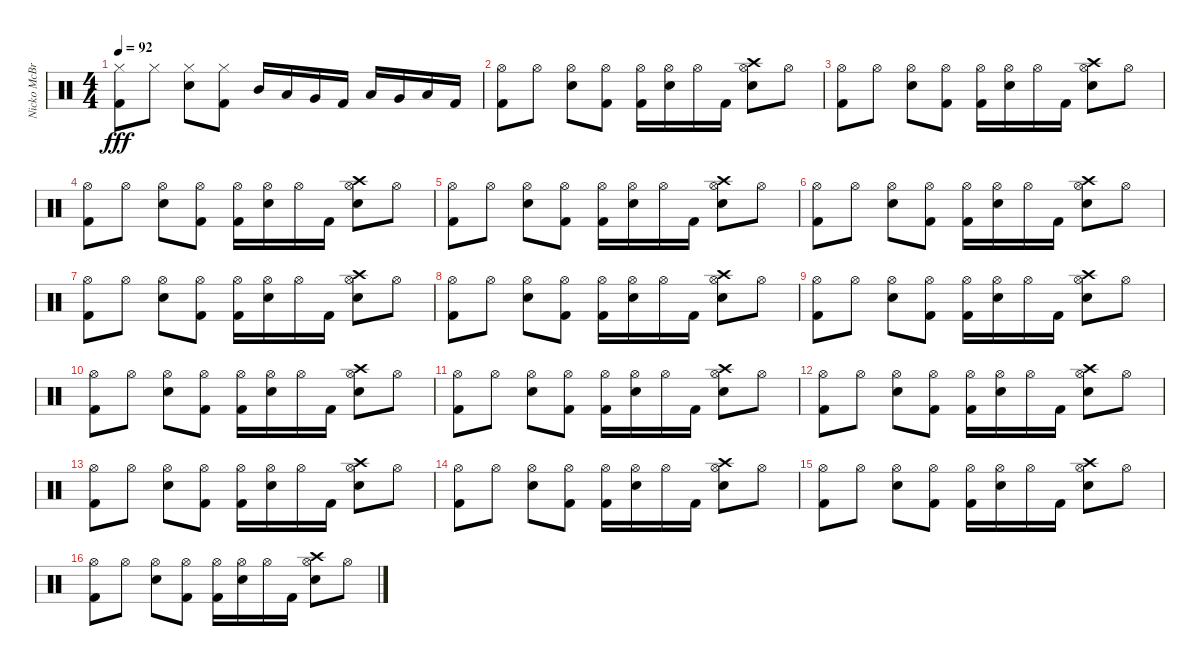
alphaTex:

\track ("Nicko McBrain" "Nicko McBr") {instrument percussion}
\staff {score}
\articulation defaults
\ts (4 4)
\tempo 92
\clef neutral
\ks c
("Hi-Hat (closed)" "Kick (hit) 2").8{dy fff} "Hi-Hat (closed)".8 ("Hi-Hat (closed)" "Snare (hit) 2").8 ("Hi-Hat (closed)" "Kick (hit) 2").8 "Mid Tom (hit)".16 "Low Tom (hit)".16 "Very Low Tom (hit)".16 "Kick (hit) 2".16 "Low Tom (hit)".16 "Very Low Tom (hit)".16 "Low Floor Tom (hit)".16 "Kick (hit) 2".16 |
("Hi-Hat (open)" "Kick (hit) 2").8 "Hi-Hat (open)".8 ("Hi-Hat (open)" "Snare (hit) 2").8 ("Hi-Hat (open)" "Kick (hit) 2").8 ("Hi-Hat (open)" "Kick (hit) 2").16 ("Hi-Hat (open)" "Snare (hit) 2").16 "Hi-Hat (open)".16 "Kick (hit) 2".16 ("Hi-Hat (open)" "Snare (hit) 2" "Crash high (hit)").8 "Hi-Hat (open)".8 |
("Hi-Hat (open)" "Kick (hit) 2").8 "Hi-Hat (open)".8 ("Hi-Hat (open)" "Snare (hit) 2").8 ("Hi-Hat (open)" "Kick (hit) 2").8 ("Hi-Hat (open)" "Kick (hit) 2").16 ("Hi-Hat (open)" "Snare (hit) 2").16 "Hi-Hat (open)".16 "Kick (hit) 2".16 ("Hi-Hat (open)" "Snare (hit) 2" "Crash high (hit)").8 "Hi-Hat (open)".8 |
("Hi-Hat (open)" "Kick (hit) 2").8 "Hi-Hat (open)".8 ("Hi-Hat (open)" "Snare (hit) 2").8 ("Hi-Hat (open)" "Kick (hit) 2").8 ("Hi-Hat (open)" "Kick (hit) 2").16 ("Hi-Hat (open)" "Snare (hit) 2").16 "Hi-Hat (open)".16 "Kick (hit) 2".16 ("Hi-Hat (open)" "Snare (hit) 2" "Crash high (hit)").8 "Hi-Hat (open)".8 |
("Hi-Hat (open)" "Kick (hit) 2").8 "Hi-Hat (open)".8 ("Hi-Hat (open)" "Snare (hit) 2").8 ("Hi-Hat (open)" "Kick (hit) 2").8 ("Hi-Hat (open)" "Kick (hit) 2").16 ("Hi-Hat (open)" "Snare (hit) 2").16 "Hi-Hat (open)".16 "Kick (hit) 2".16 ("Hi-Hat (open)" "Snare (hit) 2" "Crash high (hit)").8 "Hi-Hat (open)".8 |
("Hi-Hat (open)" "Kick (hit) 2").8 "Hi-Hat (open)".8 ("Hi-Hat (open)" "Snare (hit) 2").8 ("Hi-Hat (open)" "Kick (hit) 2").8 ("Hi-Hat (open)" "Kick (hit) 2").16 ("Hi-Hat (open)" "Snare (hit) 2").16 "Hi-Hat (open)".16 "Kick (hit) 2".16 ("Hi-Hat (open)" "Snare (hit) 2" "Crash high (hit)").8 "Hi-Hat (open)".8 |
("Hi-Hat (open)" "Kick (hit) 2").8 "Hi-Hat (open)".8 ("Hi-Hat (open)" "Snare (hit) 2").8 ("Hi-Hat (open)" "Kick (hit) 2").8 ("Hi-Hat (open)" "Kick (hit) 2").16 ("Hi-Hat (open)" "Snare (hit) 2").16 "Hi-Hat (open)".16 "Kick (hit) 2".16 ("Hi-Hat (open)" "Snare (hit) 2" "Crash high (hit)").8 "Hi-Hat (open)".8 |
("Hi-Hat (open)" "Kick (hit) 2").8 "Hi-Hat (open)".8 ("Hi-Hat (open)" "Snare (hit) 2").8 ("Hi-Hat (open)" "Kick (hit) 2").8 ("Hi-Hat (open)" "Kick (hit) 2").16 ("Hi-Hat (open)" "Snare (hit) 2").16 "Hi-Hat (open)".16 "Kick (hit) 2".16 ("Hi-Hat (open)" "Snare (hit) 2" "Crash high (hit)").8 "Hi-Hat (open)".8 |
("Hi-Hat (open)" "Kick (hit) 2").8 "Hi-Hat (open)".8 ("Hi-Hat (open)" "Snare (hit) 2").8 ("Hi-Hat (open)" "Kick (hit) 2").8 ("Hi-Hat (open)" "Kick (hit) 2").16 ("Hi-Hat (open)" "Snare (hit) 2").16 "Hi-Hat (open)".16 "Kick (hit) 2".16 ("Hi-Hat (open)" "Snare (hit) 2" "Crash high (hit)").8 "Hi-Hat (open)".8 |
("Hi-Hat (open)" "Kick (hit) 2").8 "Hi-Hat (open)".8 ("Hi-Hat (open)" "Snare (hit) 2").8 ("Hi-Hat (open)" "Kick (hit) 2").8 ("Hi-Hat (open)" "Kick (hit) 2").16 ("Hi-Hat (open)" "Snare (hit) 2").16 "Hi-Hat (open)".16 "Kick (hit) 2".16 ("Hi-Hat (open)" "Snare (hit) 2" "Crash high (hit)").8 "Hi-Hat (open)".8 |
("Hi-Hat (open)" "Kick (hit) 2").8 "Hi-Hat (open)".8 ("Hi-Hat (open)" "Snare (hit) 2").8 ("Hi-Hat (open)" "Kick (hit) 2").8 ("Hi-Hat (open)" "Kick (hit) 2").16 ("Hi-Hat (open)" "Snare (hit) 2").16 "Hi-Hat (open)".16 "Kick (hit) 2".16 ("Hi-Hat (open)" "Snare (hit) 2" "Crash high (hit)").8 "Hi-Hat (open)".8 |
("Hi-Hat (open)" "Kick (hit) 2").8 "Hi-Hat (open)".8 ("Hi-Hat (open)" "Snare (hit) 2").8 ("Hi-Hat (open)" "Kick (hit) 2").8 ("Hi-Hat (open)" "Kick (hit) 2").16 ("Hi-Hat (open)" "Snare (hit) 2").16 "Hi-Hat (open)".16 "Kick (hit) 2".16 ("Hi-Hat (open)" "Snare (hit) 2" "Crash high (hit)").8 "Hi-Hat (open)".8 |
("Hi-Hat (open)" "Kick (hit) 2").8 "Hi-Hat (open)".8 ("Hi-Hat (open)" "Snare (hit) 2").8 ("Hi-Hat (open)" "Kick (hit) 2").8 ("Hi-Hat (open)" "Kick (hit) 2").16 ("Hi-Hat (open)" "Snare (hit) 2").16 "Hi-Hat (open)".16 "Kick (hit) 2".16 ("Hi-Hat (open)" "Snare (hit) 2" "Crash high (hit)").8 "Hi-Hat (open)".8 |
("Hi-Hat (open)" "Kick (hit) 2").8 "Hi-Hat (open)".8 ("Hi-Hat (open)" "Snare (hit) 2").8 ("Hi-Hat (open)" "Kick (hit) 2").8 ("Hi-Hat (open)" "Kick (hit) 2").16 ("Hi-Hat (open)" "Snare (hit) 2").16 "Hi-Hat (open)".16 "Kick (hit) 2".16 ("Hi-Hat (open)" "Snare (hit) 2" "Crash high (hit)").8 "Hi-Hat (open)".8 |
("Hi-Hat (open)" "Kick (hit) 2").8 "Hi-Hat (open)".8 ("Hi-Hat (open)" "Snare (hit) 2").8 ("Hi-Hat (open)" "Kick (hit) 2").8 ("Hi-Hat (open)" "Kick (hit) 2").16 ("Hi-Hat (open)" "Snare (hit) 2").16 "Hi-Hat (open)".16 "Kick (hit) 2".16 ("Hi-Hat (open)" "Snare (hit) 2" "Crash high (hit)").8 "Hi-Hat (open)".8 |
("Hi-Hat (open)" "Kick (hit) 2").8 "Hi-Hat (open)".8 ("Hi-Hat (open)" "Snare (hit) 2").8 ("Hi-Hat (open)" "Kick (hit) 2").8 ("Hi-Hat (open)" "Kick (hit) 2").16 ("Hi-Hat (open)" "Snare (hit) 2").16 "Hi-Hat (open)".16 "Kick (hit) 2".16 ("Hi-Hat (open)" "Snare (hit) 2" "Crash high (hit)").8 "Hi-Hat (open)".8
